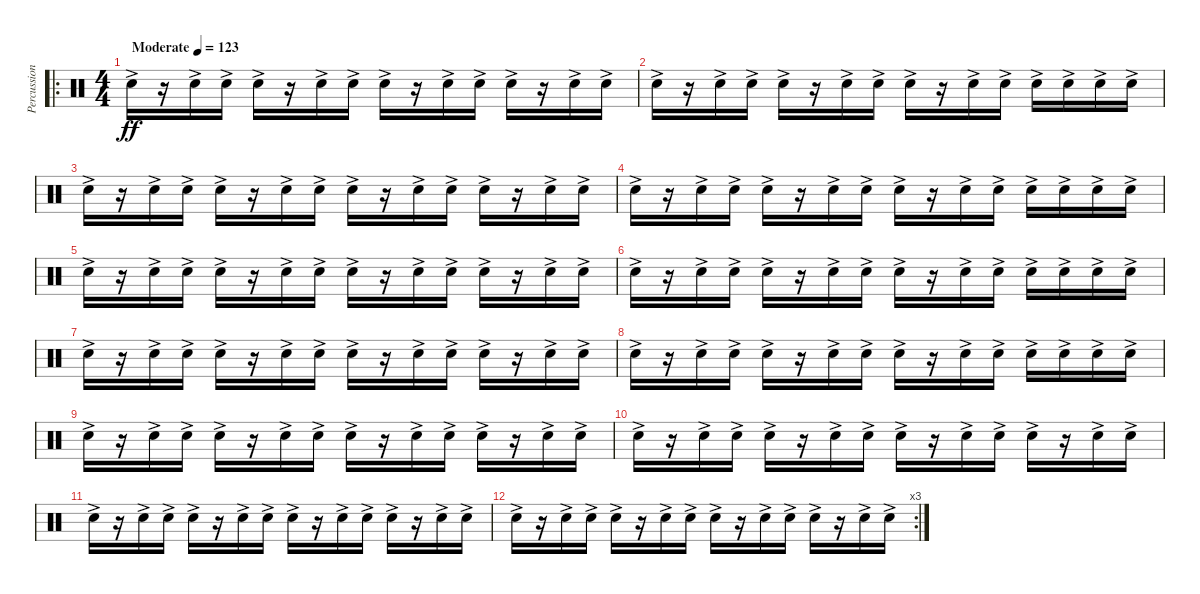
\track ("Percussion" "Percussion") {instrument percussion}
\staff {score}
\articulation defaults
\ro
\ts (4 4)
\tempo (123 "Moderate")
\clef neutral
\ks c "Snare (hit) 2"{ac}.16{dy ff}
r.16 "Snare (hit) 2"{ac}.16 "Snare (hit) 2"{ac}.16 "Snare (hit) 2"{ac}.16 r.16 "Snare (hit) 2"{ac}.16 "Snare (hit) 2"{ac}.16 "Snare (hit) 2"{ac}.16 r.16 "Snare (hit) 2"{ac}.16 "Snare (hit) 2"{ac}.16 "Snare (hit) 2"{ac}.16 r.16 "Snare (hit) 2"{ac}.16 "Snare (hit) 2"{ac}.16 |
"Snare (hit) 2"{ac}.16 r.16 "Snare (hit) 2"{ac}.16 "Snare (hit) 2"{ac}.16 "Snare (hit) 2"{ac}.16 r.16 "Snare (hit) 2"{ac}.16 "Snare (hit) 2"{ac}.16 "Snare (hit) 2"{ac}.16 r.16 "Snare (hit) 2"{ac}.16 "Snare (hit) 2"{ac}.16 "Snare (hit) 2"{ac}.16 "Snare (hit) 2"{ac}.16 "Snare (hit) 2"{ac}.16 "Snare (hit) 2"{ac}.16 |
"Snare (hit) 2"{ac}.16 r.16 "Snare (hit) 2"{ac}.16 "Snare (hit) 2"{ac}.16 "Snare (hit) 2"{ac}.16 r.16 "Snare (hit) 2"{ac}.16 "Snare (hit) 2"{ac}.16 "Snare (hit) 2"{ac}.16 r.16 "Snare (hit) 2"{ac}.16 "Snare (hit) 2"{ac}.16 "Snare (hit) 2"{ac}.16 r.16 "Snare (hit) 2"{ac}.16 "Snare (hit) 2"{ac}.16 |
"Snare (hit) 2"{ac}.16 r.16 "Snare (hit) 2"{ac}.16 "Snare (hit) 2"{ac}.16 "Snare (hit) 2"{ac}.16 r.16 "Snare (hit) 2"{ac}.16 "Snare (hit) 2"{ac}.16 "Snare (hit) 2"{ac}.16 r.16 "Snare (hit) 2"{ac}.16 "Snare (hit) 2"{ac}.16 "Snare (hit) 2"{ac}.16 "Snare (hit) 2"{ac}.16 "Snare (hit) 2"{ac}.16 "Snare (hit) 2"{ac}.16 |
"Snare (hit) 2"{ac}.16 r.16 "Snare (hit) 2"{ac}.16 "Snare (hit) 2"{ac}.16 "Snare (hit) 2"{ac}.16 r.16 "Snare (hit) 2"{ac}.16 "Snare (hit) 2"{ac}.16 "Snare (hit) 2"{ac}.16 r.16 "Snare (hit) 2"{ac}.16 "Snare (hit) 2"{ac}.16 "Snare (hit) 2"{ac}.16 r.16 "Snare (hit) 2"{ac}.16 "Snare (hit) 2"{ac}.16 |
"Snare (hit) 2"{ac}.16 r.16 "Snare (hit) 2"{ac}.16 "Snare (hit) 2"{ac}.16 "Snare (hit) 2"{ac}.16 r.16 "Snare (hit) 2"{ac}.16 "Snare (hit) 2"{ac}.16 "Snare (hit) 2"{ac}.16 r.16 "Snare (hit) 2"{ac}.16 "Snare (hit) 2"{ac}.16 "Snare (hit) 2"{ac}.16 "Snare (hit) 2"{ac}.16 "Snare (hit) 2"{ac}.16 "Snare (hit) 2"{ac}.16 |
"Snare (hit) 2"{ac}.16 r.16 "Snare (hit) 2"{ac}.16 "Snare (hit) 2"{ac}.16 "Snare (hit) 2"{ac}.16 r.16 "Snare (hit) 2"{ac}.16 "Snare (hit) 2"{ac}.16 "Snare (hit) 2"{ac}.16 r.16 "Snare (hit) 2"{ac}.16 "Snare (hit) 2"{ac}.16 "Snare (hit) 2"{ac}.16 r.16 "Snare (hit) 2"{ac}.16 "Snare (hit) 2"{ac}.16 |
"Snare (hit) 2"{ac}.16 r.16 "Snare (hit) 2"{ac}.16 "Snare (hit) 2"{ac}.16 "Snare (hit) 2"{ac}.16 r.16 "Snare (hit) 2"{ac}.16 "Snare (hit) 2"{ac}.16 "Snare (hit) 2"{ac}.16 r.16 "Snare (hit) 2"{ac}.16 "Snare (hit) 2"{ac}.16 "Snare (hit) 2"{ac}.16 "Snare (hit) 2"{ac}.16 "Snare (hit) 2"{ac}.16 "Snare (hit) 2"{ac}.16 |
"Snare (hit) 2"{ac}.16 r.16 "Snare (hit) 2"{ac}.16 "Snare (hit) 2"{ac}.16 "Snare (hit) 2"{ac}.16 r.16 "Snare (hit) 2"{ac}.16 "Snare (hit) 2"{ac}.16 "Snare (hit) 2"{ac}.16 r.16 "Snare (hit) 2"{ac}.16 "Snare (hit) 2"{ac}.16 "Snare (hit) 2"{ac}.16 r.16 "Snare (hit) 2"{ac}.16 "Snare (hit) 2"{ac}.16 |
"Snare (hit) 2"{ac}.16 r.16 "Snare (hit) 2"{ac}.16 "Snare (hit) 2"{ac}.16 "Snare (hit) 2"{ac}.16 r.16 "Snare (hit) 2"{ac}.16 "Snare (hit) 2"{ac}.16 "Snare (hit) 2"{ac}.16 r.16 "Snare (hit) 2"{ac}.16 "Snare (hit) 2"{ac}.16 "Snare (hit) 2"{ac}.16 r.16 "Snare (hit) 2"{ac}.16 "Snare (hit) 2"{ac}.16 |
"Snare (hit) 2"{ac}.16 r.16 "Snare (hit) 2"{ac}.16 "Snare (hit) 2"{ac}.16 "Snare (hit) 2"{ac}.16 r.16 "Snare (hit) 2"{ac}.16 "Snare (hit) 2"{ac}.16 "Snare (hit) 2"{ac}.16 r.16 "Snare (hit) 2"{ac}.16 "Snare (hit) 2"{ac}.16 "Snare (hit) 2"{ac}.16 r.16 "Snare (hit) 2"{ac}.16 "Snare (hit) 2"{ac}.16 |
\rc 3 "Snare (hit) 2"{ac}.16
r.16 "Snare (hit) 2"{ac}.16 "Snare (hit) 2"{ac}.16 "Snare (hit) 2"{ac}.16 r.16 "Snare (hit) 2"{ac}.16 "Snare (hit) 2"{ac}.16 "Snare (hit) 2"{ac}.16 r.16 "Snare (hit) 2"{ac}.16 "Snare (hit) 2"{ac}.16 "Snare (hit) 2"{ac}.16 r.16 "Snare (hit) 2"{ac}.16 "Snare (hit) 2"{ac}.16
